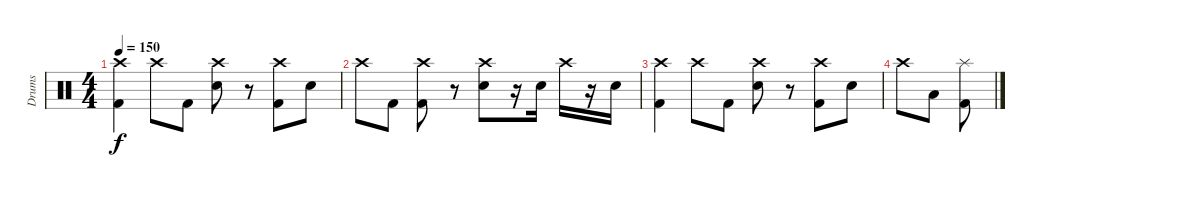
\track ("Drums" "Drums") {instrument percussion}
\staff {score}
\articulation defaults
\ts (4 4)
\tempo 150
\clef neutral
\ks c
("Crash high (hit)" "Kick (hit) 2").4{dy f} "Crash high (hit)".8 "Kick (hit) 2".8 ("Crash high (hit)" "Snare (hit) 2").8 r.8 ("Crash high (hit)" "Kick (hit) 2").8 "Snare (hit) 2".8 |
"Crash high (hit)".8 "Kick (hit) 2".8 ("Crash high (hit)" "Kick (hit) 2").8 r.8 ("Crash high (hit)" "Snare (hit) 2").8 r.16 "Snare (hit) 2".16 "Crash high (hit)".16 r.16 "Snare (hit) 2".16 |
("Crash high (hit)" "Kick (hit) 2").4 "Crash high (hit)".8 "Kick (hit) 2".8 ("Crash high (hit)" "Snare (hit) 2").8 r.8 ("Crash high (hit)" "Kick (hit) 2").8 "Snare (hit) 2".8 |
"Crash high (hit)".8 "Low Tom (hit)".8 ("Splash (hit)" "Kick (hit) 2").8
